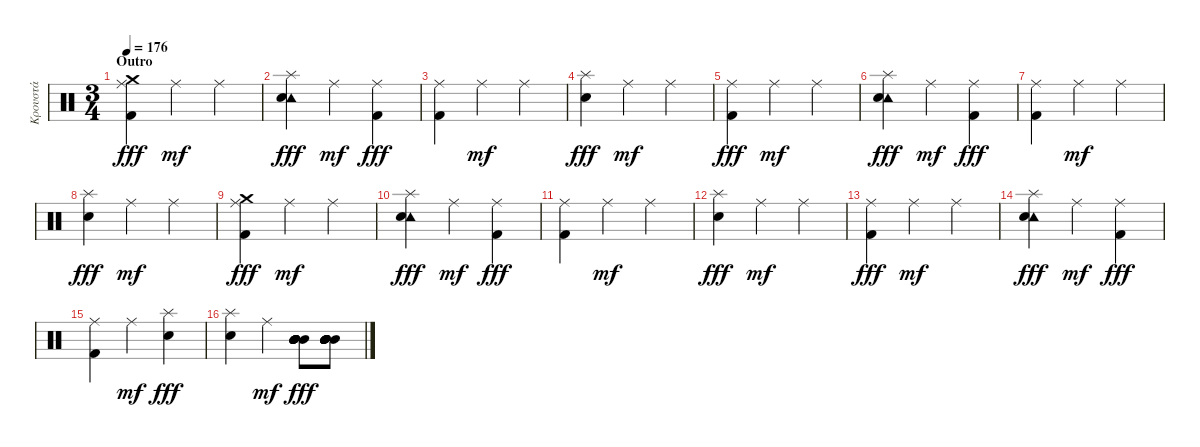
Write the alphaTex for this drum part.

\track ("Κρουστά" "Κρουστά") {instrument percussion}
\staff {score}
\articulation defaults
\ts (3 4)
\section ("" "Outro")
\tempo 176
\clef neutral
\ks c
("Crash medium (hit)" "Ride (middle)" "Kick (hit) 2").4{dy fff} "Ride (middle)".4{dy mf} "Ride (middle)".4 |
("Splash (hit)" "Tambourine (hit)" "Snare (hit) 2").4{dy fff} "Ride (middle)".4{dy mf} ("Ride (middle)" "Kick (hit) 2").4{dy fff} |
("Ride (middle)" "Kick (hit) 2").4 "Ride (middle)".4{dy mf} "Ride (middle)".4 |
("Splash (hit)" "Snare (hit) 2").4{dy fff} "Ride (middle)".4{dy mf} "Ride (middle)".4 |
("Ride (middle)" "Kick (hit) 2").4{dy fff} "Ride (middle)".4{dy mf} "Ride (middle)".4 |
("Splash (hit)" "Tambourine (hit)" "Snare (hit) 2").4{dy fff} "Ride (middle)".4{dy mf} ("Ride (middle)" "Kick (hit) 2").4{dy fff} |
("Ride (middle)" "Kick (hit) 2").4 "Ride (middle)".4{dy mf} "Ride (middle)".4 |
("Splash (hit)" "Snare (hit) 2").4{dy fff} "Ride (middle)".4{dy mf} "Ride (middle)".4 |
("Crash medium (hit)" "Ride (middle)" "Kick (hit) 2").4{dy fff} "Ride (middle)".4{dy mf} "Ride (middle)".4 |
("Splash (hit)" "Tambourine (hit)" "Snare (hit) 2").4{dy fff} "Ride (middle)".4{dy mf} ("Ride (middle)" "Kick (hit) 2").4{dy fff} |
("Ride (middle)" "Kick (hit) 2").4 "Ride (middle)".4{dy mf} "Ride (middle)".4 |
("Splash (hit)" "Snare (hit) 2").4{dy fff} "Ride (middle)".4{dy mf} "Ride (middle)".4 |
("Ride (middle)" "Kick (hit) 2").4{dy fff} "Ride (middle)".4{dy mf} "Ride (middle)".4 |
("Splash (hit)" "Tambourine (hit)" "Snare (hit) 2").4{dy fff} "Ride (middle)".4{dy mf} ("Ride (middle)" "Kick (hit) 2").4{dy fff} |
("Ride (middle)" "Kick (hit) 2").4 "Ride (middle)".4{dy mf} ("Splash (hit)" "Snare (hit) 2").4{dy fff} |
("Splash (hit)" "Snare (hit) 2").4 "Ride (middle)".4{dy mf} ("Mid Tom (hit)" "Mid Tom (hit)" "Mid Tom (hit)" "Mid Tom (hit)" "Mid Tom (hit)" "Mid Tom (hit)").8{dy fff} ("Mid Tom (hit)" "Mid Tom (hit)" "Mid Tom (hit)" "Mid Tom (hit)" "Mid Tom (hit)" "Mid Tom (hit)").8
